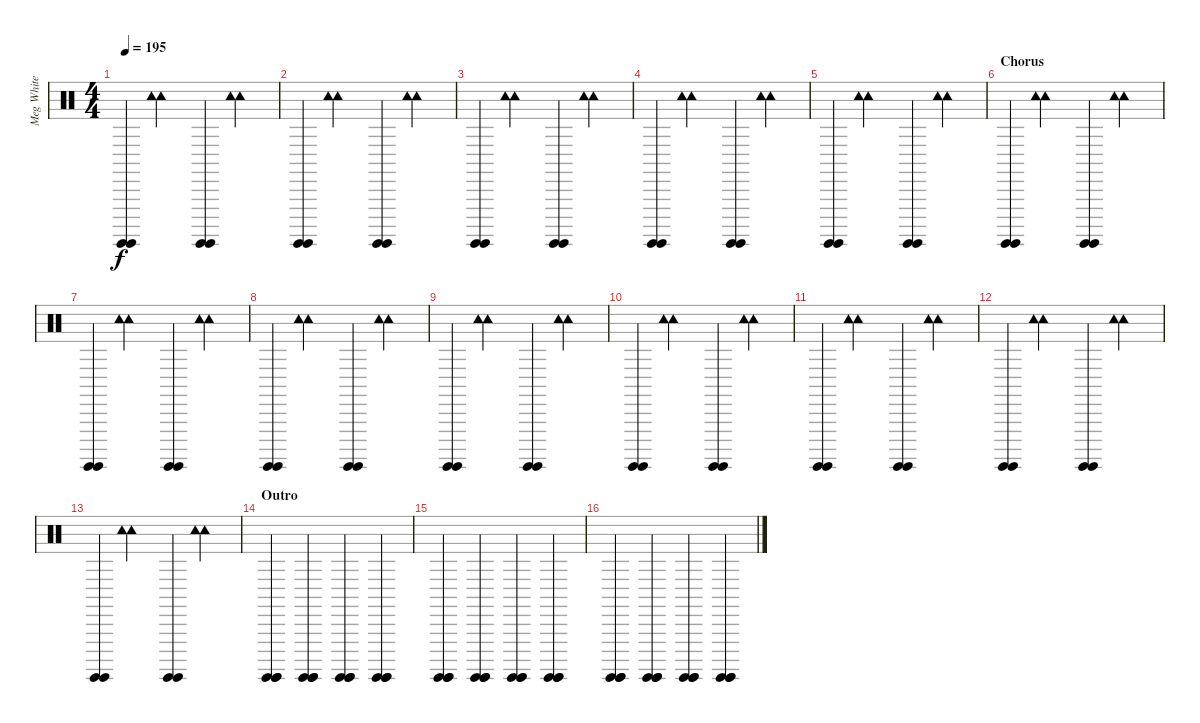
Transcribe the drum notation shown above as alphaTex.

\track ("Meg White" "Meg White") {instrument percussion}
\staff {score}
\articulation defaults
\ts (4 4)
\tempo 195
\clef neutral
\ks c
("Surdo (hit)" "Surdo (hit)").4{dy f} ("Tambourine (hit)" "Tambourine (hit)").4 ("Surdo (hit)" "Surdo (hit)").4 ("Tambourine (hit)" "Tambourine (hit)").4 |
("Surdo (hit)" "Surdo (hit)").4 ("Tambourine (hit)" "Tambourine (hit)").4 ("Surdo (hit)" "Surdo (hit)").4 ("Tambourine (hit)" "Tambourine (hit)").4 |
("Surdo (hit)" "Surdo (hit)").4 ("Tambourine (hit)" "Tambourine (hit)").4 ("Surdo (hit)" "Surdo (hit)").4 ("Tambourine (hit)" "Tambourine (hit)").4 |
("Surdo (hit)" "Surdo (hit)").4 ("Tambourine (hit)" "Tambourine (hit)").4 ("Surdo (hit)" "Surdo (hit)").4 ("Tambourine (hit)" "Tambourine (hit)").4 |
("Surdo (hit)" "Surdo (hit)").4 ("Tambourine (hit)" "Tambourine (hit)").4 ("Surdo (hit)" "Surdo (hit)").4 ("Tambourine (hit)" "Tambourine (hit)").4 |
\section ("" "Chorus")
("Surdo (hit)" "Surdo (hit)").4 ("Tambourine (hit)" "Tambourine (hit)").4 ("Surdo (hit)" "Surdo (hit)").4 ("Tambourine (hit)" "Tambourine (hit)").4 |
("Surdo (hit)" "Surdo (hit)").4 ("Tambourine (hit)" "Tambourine (hit)").4 ("Surdo (hit)" "Surdo (hit)").4 ("Tambourine (hit)" "Tambourine (hit)").4 |
("Surdo (hit)" "Surdo (hit)").4 ("Tambourine (hit)" "Tambourine (hit)").4 ("Surdo (hit)" "Surdo (hit)").4 ("Tambourine (hit)" "Tambourine (hit)").4 |
("Surdo (hit)" "Surdo (hit)").4 ("Tambourine (hit)" "Tambourine (hit)").4 ("Surdo (hit)" "Surdo (hit)").4 ("Tambourine (hit)" "Tambourine (hit)").4 |
("Surdo (hit)" "Surdo (hit)").4 ("Tambourine (hit)" "Tambourine (hit)").4 ("Surdo (hit)" "Surdo (hit)").4 ("Tambourine (hit)" "Tambourine (hit)").4 |
("Surdo (hit)" "Surdo (hit)").4 ("Tambourine (hit)" "Tambourine (hit)").4 ("Surdo (hit)" "Surdo (hit)").4 ("Tambourine (hit)" "Tambourine (hit)").4 |
("Surdo (hit)" "Surdo (hit)").4 ("Tambourine (hit)" "Tambourine (hit)").4 ("Surdo (hit)" "Surdo (hit)").4 ("Tambourine (hit)" "Tambourine (hit)").4 |
("Surdo (hit)" "Surdo (hit)").4 ("Tambourine (hit)" "Tambourine (hit)").4 ("Surdo (hit)" "Surdo (hit)").4 ("Tambourine (hit)" "Tambourine (hit)").4 |
\section ("" "Outro")
("Surdo (hit)" "Surdo (hit)" "Surdo (hit)").4 ("Surdo (hit)" "Surdo (hit)" "Surdo (hit)").4 ("Surdo (hit)" "Surdo (hit)" "Surdo (hit)").4 ("Surdo (hit)" "Surdo (hit)" "Surdo (hit)").4 |
("Surdo (hit)" "Surdo (hit)" "Surdo (hit)").4 ("Surdo (hit)" "Surdo (hit)" "Surdo (hit)").4 ("Surdo (hit)" "Surdo (hit)" "Surdo (hit)").4 ("Surdo (hit)" "Surdo (hit)" "Surdo (hit)").4 |
("Surdo (hit)" "Surdo (hit)" "Surdo (hit)").4 ("Surdo (hit)" "Surdo (hit)" "Surdo (hit)").4 ("Surdo (hit)" "Surdo (hit)" "Surdo (hit)").4 ("Surdo (hit)" "Surdo (hit)" "Surdo (hit)").4
